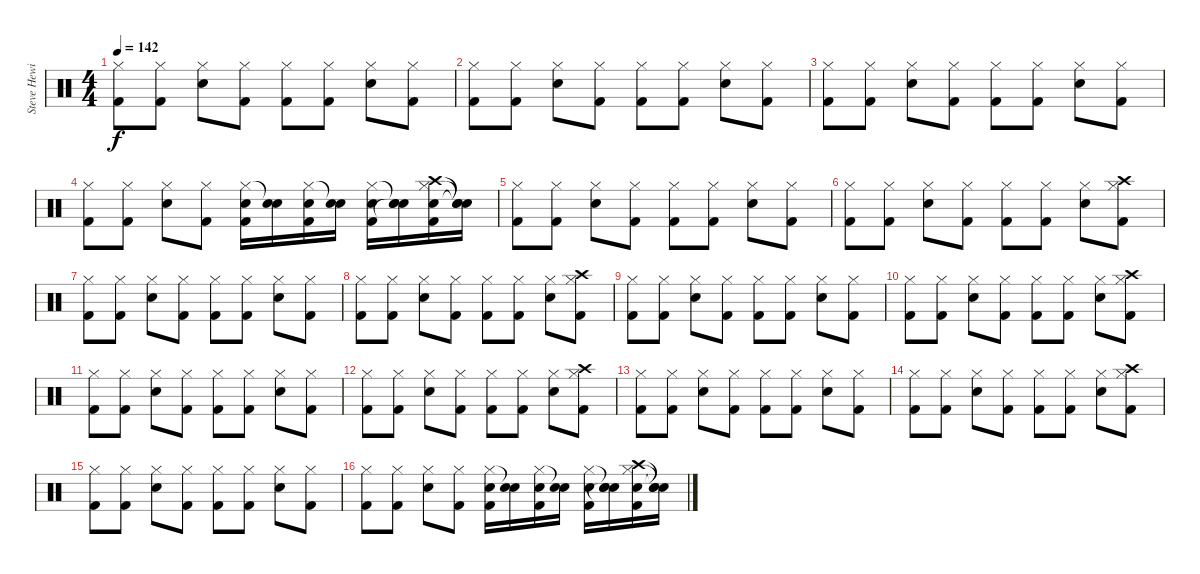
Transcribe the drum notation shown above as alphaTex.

\track ("Steve Hewitt" "Steve Hewi") {instrument percussion}
\staff {score}
\articulation defaults
\ts (4 4)
\tempo 142
\clef neutral
\ks c
("Hi-Hat (closed)" "Kick (hit) 2").8{dy f} ("Hi-Hat (closed)" "Kick (hit) 2").8 ("Hi-Hat (closed)" "Snare (hit) 2").8 ("Hi-Hat (closed)" "Kick (hit) 2").8 ("Hi-Hat (closed)" "Kick (hit) 2").8 ("Hi-Hat (closed)" "Kick (hit) 2").8 ("Hi-Hat (closed)" "Snare (hit) 2").8 ("Hi-Hat (closed)" "Kick (hit) 2").8 |
("Hi-Hat (closed)" "Kick (hit) 2").8 ("Hi-Hat (closed)" "Kick (hit) 2").8 ("Hi-Hat (closed)" "Snare (hit) 2").8 ("Hi-Hat (closed)" "Kick (hit) 2").8 ("Hi-Hat (closed)" "Kick (hit) 2").8 ("Hi-Hat (closed)" "Kick (hit) 2").8 ("Hi-Hat (closed)" "Snare (hit) 2").8 ("Hi-Hat (closed)" "Kick (hit) 2").8 |
("Hi-Hat (closed)" "Kick (hit) 2").8 ("Hi-Hat (closed)" "Kick (hit) 2").8 ("Hi-Hat (closed)" "Snare (hit) 2").8 ("Hi-Hat (closed)" "Kick (hit) 2").8 ("Hi-Hat (closed)" "Kick (hit) 2").8 ("Hi-Hat (closed)" "Kick (hit) 2").8 ("Hi-Hat (closed)" "Snare (hit) 2").8 ("Hi-Hat (closed)" "Kick (hit) 2").8 |
("Hi-Hat (closed)" "Kick (hit) 2").8 ("Hi-Hat (closed)" "Kick (hit) 2").8 ("Hi-Hat (closed)" "Snare (hit) 2").8 ("Hi-Hat (closed)" "Kick (hit) 2").8 ("Snare (hit) 2" "Hi-Hat (closed)" "Kick (hit) 2").16 ("Snare (hit) 2" "Snare (hit)"{t}).16 ("Snare (hit) 2" "Hi-Hat (closed)" "Kick (hit) 2").16 ("Snare (hit) 2" "Snare (hit)"{t}).16 ("Snare (hit) 2" "Hi-Hat (closed)" "Kick (hit) 2").16 ("Snare (hit) 2" "Snare (hit)"{t} "Snare (hit)"{t}).16 ("Snare (hit) 2" "Crash high (hit)" "Hi-Hat (closed)" "Kick (hit) 2").16 ("Snare (hit)"{t} "Snare (hit)"{t} "Snare (hit)"{t}).16 |
("Hi-Hat (closed)" "Kick (hit) 2").8 ("Hi-Hat (closed)" "Kick (hit) 2").8 ("Hi-Hat (closed)" "Snare (hit) 2").8 ("Hi-Hat (closed)" "Kick (hit) 2").8 ("Hi-Hat (closed)" "Kick (hit) 2").8 ("Hi-Hat (closed)" "Kick (hit) 2").8 ("Hi-Hat (closed)" "Snare (hit) 2").8 ("Hi-Hat (closed)" "Kick (hit) 2").8 |
("Hi-Hat (closed)" "Kick (hit) 2").8 ("Hi-Hat (closed)" "Kick (hit) 2").8 ("Hi-Hat (closed)" "Snare (hit) 2").8 ("Hi-Hat (closed)" "Kick (hit) 2").8 ("Hi-Hat (closed)" "Kick (hit) 2").8 ("Hi-Hat (closed)" "Kick (hit) 2").8 ("Hi-Hat (closed)" "Snare (hit) 2").8 ("Crash high (hit)" "Hi-Hat (closed)" "Kick (hit) 2").8 |
("Hi-Hat (closed)" "Kick (hit) 2").8 ("Hi-Hat (closed)" "Kick (hit) 2").8 ("Hi-Hat (closed)" "Snare (hit) 2").8 ("Hi-Hat (closed)" "Kick (hit) 2").8 ("Hi-Hat (closed)" "Kick (hit) 2").8 ("Hi-Hat (closed)" "Kick (hit) 2").8 ("Hi-Hat (closed)" "Snare (hit) 2").8 ("Hi-Hat (closed)" "Kick (hit) 2").8 |
("Hi-Hat (closed)" "Kick (hit) 2").8 ("Hi-Hat (closed)" "Kick (hit) 2").8 ("Hi-Hat (closed)" "Snare (hit) 2").8 ("Hi-Hat (closed)" "Kick (hit) 2").8 ("Hi-Hat (closed)" "Kick (hit) 2").8 ("Hi-Hat (closed)" "Kick (hit) 2").8 ("Hi-Hat (closed)" "Snare (hit) 2").8 ("Crash high (hit)" "Hi-Hat (closed)" "Kick (hit) 2").8 |
("Hi-Hat (closed)" "Kick (hit) 2").8 ("Hi-Hat (closed)" "Kick (hit) 2").8 ("Hi-Hat (closed)" "Snare (hit) 2").8 ("Hi-Hat (closed)" "Kick (hit) 2").8 ("Hi-Hat (closed)" "Kick (hit) 2").8 ("Hi-Hat (closed)" "Kick (hit) 2").8 ("Hi-Hat (closed)" "Snare (hit) 2").8 ("Hi-Hat (closed)" "Kick (hit) 2").8 |
("Hi-Hat (closed)" "Kick (hit) 2").8 ("Hi-Hat (closed)" "Kick (hit) 2").8 ("Hi-Hat (closed)" "Snare (hit) 2").8 ("Hi-Hat (closed)" "Kick (hit) 2").8 ("Hi-Hat (closed)" "Kick (hit) 2").8 ("Hi-Hat (closed)" "Kick (hit) 2").8 ("Hi-Hat (closed)" "Snare (hit) 2").8 ("Crash high (hit)" "Hi-Hat (closed)" "Kick (hit) 2").8 |
("Hi-Hat (closed)" "Kick (hit) 2").8 ("Hi-Hat (closed)" "Kick (hit) 2").8 ("Hi-Hat (closed)" "Snare (hit) 2").8 ("Hi-Hat (closed)" "Kick (hit) 2").8 ("Hi-Hat (closed)" "Kick (hit) 2").8 ("Hi-Hat (closed)" "Kick (hit) 2").8 ("Hi-Hat (closed)" "Snare (hit) 2").8 ("Hi-Hat (closed)" "Kick (hit) 2").8 |
("Hi-Hat (closed)" "Kick (hit) 2").8 ("Hi-Hat (closed)" "Kick (hit) 2").8 ("Hi-Hat (closed)" "Snare (hit) 2").8 ("Hi-Hat (closed)" "Kick (hit) 2").8 ("Hi-Hat (closed)" "Kick (hit) 2").8 ("Hi-Hat (closed)" "Kick (hit) 2").8 ("Hi-Hat (closed)" "Snare (hit) 2").8 ("Crash high (hit)" "Hi-Hat (closed)" "Kick (hit) 2").8 |
("Hi-Hat (closed)" "Kick (hit) 2").8 ("Hi-Hat (closed)" "Kick (hit) 2").8 ("Hi-Hat (closed)" "Snare (hit) 2").8 ("Hi-Hat (closed)" "Kick (hit) 2").8 ("Hi-Hat (closed)" "Kick (hit) 2").8 ("Hi-Hat (closed)" "Kick (hit) 2").8 ("Hi-Hat (closed)" "Snare (hit) 2").8 ("Hi-Hat (closed)" "Kick (hit) 2").8 |
("Hi-Hat (closed)" "Kick (hit) 2").8 ("Hi-Hat (closed)" "Kick (hit) 2").8 ("Hi-Hat (closed)" "Snare (hit) 2").8 ("Hi-Hat (closed)" "Kick (hit) 2").8 ("Hi-Hat (closed)" "Kick (hit) 2").8 ("Hi-Hat (closed)" "Kick (hit) 2").8 ("Hi-Hat (closed)" "Snare (hit) 2").8 ("Crash high (hit)" "Hi-Hat (closed)" "Kick (hit) 2").8 |
("Hi-Hat (closed)" "Kick (hit) 2").8 ("Hi-Hat (closed)" "Kick (hit) 2").8 ("Hi-Hat (closed)" "Snare (hit) 2").8 ("Hi-Hat (closed)" "Kick (hit) 2").8 ("Hi-Hat (closed)" "Kick (hit) 2").8 ("Hi-Hat (closed)" "Kick (hit) 2").8 ("Hi-Hat (closed)" "Snare (hit) 2").8 ("Hi-Hat (closed)" "Kick (hit) 2").8 |
("Hi-Hat (closed)" "Kick (hit) 2").8 ("Hi-Hat (closed)" "Kick (hit) 2").8 ("Hi-Hat (closed)" "Snare (hit) 2").8 ("Hi-Hat (closed)" "Kick (hit) 2").8 ("Snare (hit) 2" "Hi-Hat (closed)" "Kick (hit) 2").16 ("Snare (hit) 2" "Snare (hit)"{t}).16 ("Snare (hit) 2" "Hi-Hat (closed)" "Kick (hit) 2").16 ("Snare (hit) 2" "Snare (hit)"{t}).16 ("Snare (hit) 2" "Hi-Hat (closed)" "Kick (hit) 2").16 ("Snare (hit) 2" "Snare (hit)"{t} "Snare (hit)"{t}).16 ("Snare (hit) 2" "Crash high (hit)" "Hi-Hat (closed)" "Kick (hit) 2").16 ("Snare (hit)"{t} "Snare (hit)"{t} "Snare (hit)"{t}).16
